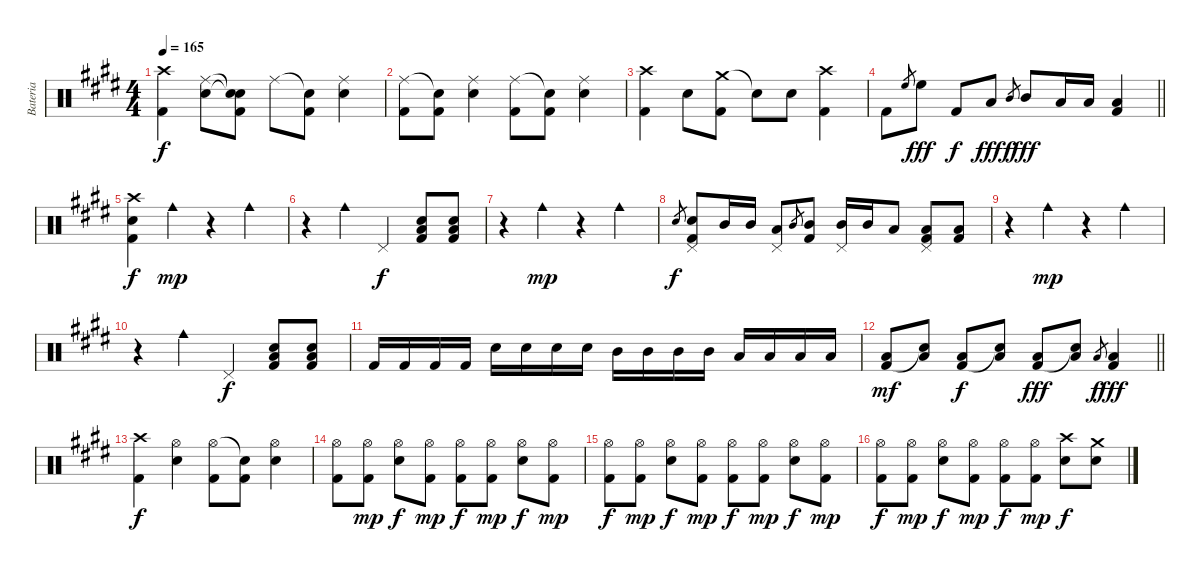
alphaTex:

\track ("Bateria" "Bateria") {instrument percussion}
\staff {score}
\articulation defaults
\ts (4 4)
\tempo 165
\clef neutral
\ks e
("Crash high (hit)" "Kick (hit) 2").4{dy f} ("Ride (middle)" "Electric Snare (hit)").8 ("Snare (hit)"{t} "Snare (hit)"{t} "Kick (hit) 2").8 "Ride (middle)".8 ("Snare (hit)"{t} "Kick (hit) 2").8 ("Ride (middle)" "Electric Snare (hit)").4 |
("Ride (middle)" "Kick (hit) 2").8 ("Snare (hit)"{t} "Kick (hit) 2").8 ("Ride (middle)" "Electric Snare (hit)").4 ("Ride (middle)" "Kick (hit) 2").8 ("Snare (hit)"{t} "Kick (hit) 2").8 ("Ride (middle)" "Electric Snare (hit)").4 |
("Crash high (hit)" "Kick (hit) 2").4 "Electric Snare (hit)".8 ("Crash medium (hit)" "Kick (hit) 2").8 "Snare (hit)"{t}.8 "Electric Snare (hit)".8 ("Crash high (hit)" "Kick (hit) 2").4 |
\barLineRight lightlight "Kick (hit) 2".8 "High Floor Tom (hit)".8{gr} "High Floor Tom (hit)".8{dy fff} "Kick (hit) 2".8{dy f} "Low Tom (hit)".8{dy fff} "Mid Tom (hit)".8{gr dy f} "Mid Tom (hit)".8{dy fff} "Low Tom (hit)".16 "Low Tom (hit)".16
("Low Floor Tom (hit)" "Kick (hit) 2").4 |
("Crash high (hit)" "Electric Snare (hit)" "Kick (hit) 2").4{dy f} "Cowbell medium (hit)".4{dy mp} r.4 "Cowbell medium (hit)".4 |
r.4 "Cowbell medium (hit)".4 "Pedal Hi-Hat (hit)".4{dy f} ("Electric Snare (hit)" "Low Tom (hit)" "Kick (hit) 2").8 ("Electric Snare (hit)" "Low Tom (hit)" "Kick (hit) 2").8 |
r.4 "Cowbell medium (hit)".4{dy mp} r.4 "Cowbell medium (hit)".4 |
"Electric Snare (hit)".8{gr dy f} ("Electric Snare (hit)" "Pedal Hi-Hat (hit)" "Kick (hit) 2").8 "Mid Tom (hit)".16 "Mid Tom (hit)".16 ("Low Tom (hit)" "Pedal Hi-Hat (hit)").8 "Mid Tom (hit)".8{gr} ("Mid Tom (hit)" "Kick (hit) 2").8 ("Mid Tom (hit)" "Pedal Hi-Hat (hit)").16 "Mid Tom (hit)".16 "Low Tom (hit)".8 ("Low Tom (hit)" "Pedal Hi-Hat (hit)" "Kick (hit) 2").8 ("Low Tom (hit)" "Kick (hit) 2").8 |
r.4 "Cowbell medium (hit)".4{dy mp} r.4 "Cowbell medium (hit)".4 |
r.4 "Cowbell medium (hit)".4 "Pedal Hi-Hat (hit)".4{dy f} ("Electric Snare (hit)" "Low Tom (hit)" "Kick (hit) 2").8 ("Electric Snare (hit)" "Low Tom (hit)" "Kick (hit) 2").8 |
"Kick (hit) 2".16 "Kick (hit) 2".16 "Kick (hit) 2".16 "Kick (hit) 2".16 "Electric Snare (hit)".16 "Electric Snare (hit)".16 "Electric Snare (hit)".16 "Electric Snare (hit)".16 "Mid Tom (hit)".16 "Mid Tom (hit)".16 "Mid Tom (hit)".16 "Mid Tom (hit)".16 "Low Tom (hit)".16 "Low Tom (hit)".16 "Low Tom (hit)".16 "Low Tom (hit)".16 |
\barLineRight lightlight
("Low Tom (hit)" "Kick (hit) 2").8{dy mf} ("Low Tom (hit)" "Snare (hit)"{t}).8 ("Low Tom (hit)" "Kick (hit) 2").8{dy f} ("Low Tom (hit)" "Snare (hit)"{t}).8 ("Low Tom (hit)" "Kick (hit) 2").8{dy fff} ("Low Tom (hit)" "Snare (hit)"{t}).8 "Low Tom (hit)".8{gr dy f} ("Low Tom (hit)" "Kick (hit) 2").4{dy fff} |
("Crash high (hit)" "Kick (hit) 2").4{dy f} ("Hi-Hat (open)" "Electric Snare (hit)").4 ("Hi-Hat (open)" "Kick (hit) 2").8 ("Snare (hit)"{t} "Kick (hit) 2").8 ("Hi-Hat (open)" "Electric Snare (hit)").4 |
("Hi-Hat (open)" "Kick (hit) 2").8 ("Hi-Hat (open)" "Kick (hit) 2").8{dy mp} ("Hi-Hat (open)" "Electric Snare (hit)").8{dy f} ("Hi-Hat (open)" "Kick (hit) 2").8{dy mp} ("Hi-Hat (open)" "Kick (hit) 2").8{dy f} ("Hi-Hat (open)" "Kick (hit) 2").8{dy mp} ("Hi-Hat (open)" "Electric Snare (hit)").8{dy f} ("Hi-Hat (open)" "Kick (hit) 2").8{dy mp} |
("Hi-Hat (open)" "Kick (hit) 2").8{dy f} ("Hi-Hat (open)" "Kick (hit) 2").8{dy mp} ("Hi-Hat (open)" "Electric Snare (hit)").8{dy f} ("Hi-Hat (open)" "Kick (hit) 2").8{dy mp} ("Hi-Hat (open)" "Kick (hit) 2").8{dy f} ("Hi-Hat (open)" "Kick (hit) 2").8{dy mp} ("Hi-Hat (open)" "Electric Snare (hit)").8{dy f} ("Hi-Hat (open)" "Kick (hit) 2").8{dy mp} |
("Hi-Hat (open)" "Kick (hit) 2").8{dy f} ("Hi-Hat (open)" "Kick (hit) 2").8{dy mp} ("Hi-Hat (open)" "Electric Snare (hit)").8{dy f} ("Hi-Hat (open)" "Kick (hit) 2").8{dy mp} ("Hi-Hat (open)" "Kick (hit) 2").8{dy f} ("Hi-Hat (open)" "Kick (hit) 2").8{dy mp} ("Crash high (hit)" "Electric Snare (hit)").8{dy f} ("Crash medium (hit)" "Electric Snare (hit)").8
